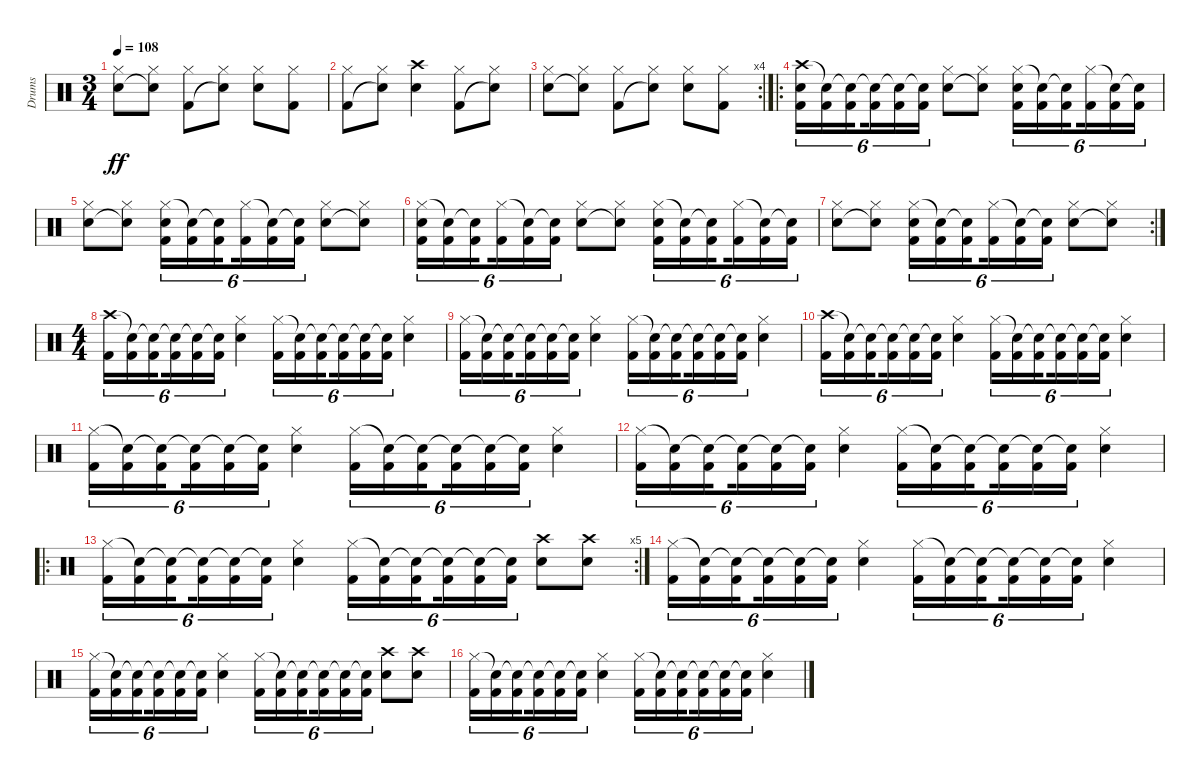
\track ("Drums" "Drums") {instrument percussion}
\staff {score}
\articulation defaults
\ts (3 4)
\tempo 108
\clef neutral
\ks c
("Hi-Hat (closed)" "Snare (hit) 2").8{dy ff} ("Hi-Hat (closed)" "Snare (hit)"{t}).8 ("Hi-Hat (closed)" "Kick (hit) 2").8 ("Hi-Hat (closed)" "Snare (hit)"{t}).8 ("Hi-Hat (closed)" "Snare (hit) 2").8 ("Hi-Hat (closed)" "Kick (hit) 2").8 |
("Hi-Hat (closed)" "Kick (hit) 2").8 ("Hi-Hat (closed)" "Snare (hit)"{t}).8 ("Crash high (hit)" "Snare (hit) 2").4 ("Hi-Hat (closed)" "Kick (hit) 2").8 ("Hi-Hat (closed)" "Snare (hit)"{t}).8 |
\rc 4
("Hi-Hat (closed)" "Snare (hit) 2").8 ("Hi-Hat (closed)" "Snare (hit)"{t}).8 ("Hi-Hat (closed)" "Kick (hit) 2").8 ("Hi-Hat (closed)" "Snare (hit)"{t}).8 ("Hi-Hat (closed)" "Snare (hit) 2").8 ("Hi-Hat (closed)" "Kick (hit) 2").8 |
\ro
("Crash high (hit)" "Snare (hit) 2" "Kick (hit) 2").16{tu (6 4)} ("Snare (hit)"{t} "Kick (hit) 2").16{tu (6 4)} ("Snare (hit)"{t} "Kick (hit) 2").16{tu (6 4) beam splitsecondary} ("Snare (hit)"{t} "Kick (hit) 2").16{tu (6 4)} ("Snare (hit)"{t} "Kick (hit) 2").16{tu (6 4)} ("Snare (hit)"{t} "Kick (hit) 2").16{tu (6 4)} ("Hi-Hat (closed)" "Snare (hit) 2").8 ("Hi-Hat (closed)" "Snare (hit)"{t}).8 ("Hi-Hat (closed)" "Snare (hit) 2" "Kick (hit) 2").16{tu (6 4)} ("Snare (hit)"{t} "Kick (hit) 2").16{tu (6 4)} ("Snare (hit)"{t} "Kick (hit) 2").16{tu (6 4) beam splitsecondary} ("Hi-Hat (closed)" "Kick (hit) 2").16{tu (6 4)} ("Snare (hit)"{t} "Kick (hit) 2").16{tu (6 4)} ("Snare (hit)"{t} "Kick (hit) 2").16{tu (6 4)} |
("Hi-Hat (closed)" "Snare (hit) 2").8 ("Hi-Hat (closed)" "Snare (hit)"{t}).8 ("Hi-Hat (closed)" "Snare (hit) 2" "Kick (hit) 2").16{tu (6 4)} ("Snare (hit)"{t} "Kick (hit) 2").16{tu (6 4)} ("Snare (hit)"{t} "Kick (hit) 2").16{tu (6 4) beam splitsecondary} ("Hi-Hat (closed)" "Kick (hit) 2").16{tu (6 4)} ("Snare (hit)"{t} "Kick (hit) 2").16{tu (6 4)} ("Snare (hit)"{t} "Kick (hit) 2").16{tu (6 4)} ("Hi-Hat (closed)" "Snare (hit) 2").8 ("Hi-Hat (closed)" "Snare (hit)"{t}).8 |
("Hi-Hat (closed)" "Snare (hit) 2" "Kick (hit) 2").16{tu (6 4)} ("Snare (hit)"{t} "Kick (hit) 2").16{tu (6 4)} ("Snare (hit)"{t} "Kick (hit) 2").16{tu (6 4) beam splitsecondary} ("Hi-Hat (closed)" "Kick (hit) 2").16{tu (6 4)} ("Snare (hit)"{t} "Kick (hit) 2").16{tu (6 4)} ("Snare (hit)"{t} "Kick (hit) 2").16{tu (6 4)} ("Hi-Hat (closed)" "Snare (hit) 2").8 ("Hi-Hat (closed)" "Snare (hit)"{t}).8 ("Hi-Hat (closed)" "Snare (hit) 2" "Kick (hit) 2").16{tu (6 4)} ("Snare (hit)"{t} "Kick (hit) 2").16{tu (6 4)} ("Snare (hit)"{t} "Kick (hit) 2").16{tu (6 4) beam splitsecondary} ("Hi-Hat (closed)" "Kick (hit) 2").16{tu (6 4)} ("Snare (hit)"{t} "Kick (hit) 2").16{tu (6 4)} ("Snare (hit)"{t} "Kick (hit) 2").16{tu (6 4)} |
\rc 2
("Hi-Hat (closed)" "Snare (hit) 2").8 ("Hi-Hat (closed)" "Snare (hit)"{t}).8 ("Hi-Hat (closed)" "Snare (hit) 2" "Kick (hit) 2").16{tu (6 4)} ("Snare (hit)"{t} "Kick (hit) 2").16{tu (6 4)} ("Snare (hit)"{t} "Kick (hit) 2").16{tu (6 4) beam splitsecondary} ("Hi-Hat (closed)" "Kick (hit) 2").16{tu (6 4)} ("Snare (hit)"{t} "Kick (hit) 2").16{tu (6 4)} ("Snare (hit)"{t} "Kick (hit) 2").16{tu (6 4)} ("Hi-Hat (closed)" "Snare (hit) 2").8 ("Hi-Hat (closed)" "Snare (hit)"{t}).8 |
\ts (4 4)
("Crash high (hit)" "Kick (hit) 2").16{tu (6 4)} ("Snare (hit)"{t} "Kick (hit) 2").16{tu (6 4)} ("Snare (hit)"{t} "Kick (hit) 2").16{tu (6 4) beam splitsecondary} ("Snare (hit)"{t} "Kick (hit) 2").16{tu (6 4)} ("Snare (hit)"{t} "Kick (hit) 2").16{tu (6 4)} ("Snare (hit)"{t} "Kick (hit) 2").16{tu (6 4)} ("Hi-Hat (closed)" "Snare (hit) 2").4 ("Hi-Hat (closed)" "Kick (hit) 2").16{tu (6 4)} ("Snare (hit)"{t} "Kick (hit) 2").16{tu (6 4)} ("Snare (hit)"{t} "Kick (hit) 2").16{tu (6 4) beam splitsecondary} ("Snare (hit)"{t} "Kick (hit) 2").16{tu (6 4)} ("Snare (hit)"{t} "Kick (hit) 2").16{tu (6 4)} ("Snare (hit)"{t} "Kick (hit) 2").16{tu (6 4)} ("Hi-Hat (closed)" "Snare (hit) 2").4 |
("Hi-Hat (closed)" "Kick (hit) 2").16{tu (6 4)} ("Snare (hit)"{t} "Kick (hit) 2").16{tu (6 4)} ("Snare (hit)"{t} "Kick (hit) 2").16{tu (6 4) beam splitsecondary} ("Snare (hit)"{t} "Kick (hit) 2").16{tu (6 4)} ("Snare (hit)"{t} "Kick (hit) 2").16{tu (6 4)} ("Snare (hit)"{t} "Kick (hit) 2").16{tu (6 4)} ("Hi-Hat (closed)" "Snare (hit) 2").4 ("Hi-Hat (closed)" "Kick (hit) 2").16{tu (6 4)} ("Snare (hit)"{t} "Kick (hit) 2").16{tu (6 4)} ("Snare (hit)"{t} "Kick (hit) 2").16{tu (6 4) beam splitsecondary} ("Snare (hit)"{t} "Kick (hit) 2").16{tu (6 4)} ("Snare (hit)"{t} "Kick (hit) 2").16{tu (6 4)} ("Snare (hit)"{t} "Kick (hit) 2").16{tu (6 4)} ("Hi-Hat (closed)" "Snare (hit) 2").4 |
("Crash high (hit)" "Kick (hit) 2").16{tu (6 4)} ("Snare (hit)"{t} "Kick (hit) 2").16{tu (6 4)} ("Snare (hit)"{t} "Kick (hit) 2").16{tu (6 4) beam splitsecondary} ("Snare (hit)"{t} "Kick (hit) 2").16{tu (6 4)} ("Snare (hit)"{t} "Kick (hit) 2").16{tu (6 4)} ("Snare (hit)"{t} "Kick (hit) 2").16{tu (6 4)} ("Hi-Hat (closed)" "Snare (hit) 2").4 ("Hi-Hat (closed)" "Kick (hit) 2").16{tu (6 4)} ("Snare (hit)"{t} "Kick (hit) 2").16{tu (6 4)} ("Snare (hit)"{t} "Kick (hit) 2").16{tu (6 4) beam splitsecondary} ("Snare (hit)"{t} "Kick (hit) 2").16{tu (6 4)} ("Snare (hit)"{t} "Kick (hit) 2").16{tu (6 4)} ("Snare (hit)"{t} "Kick (hit) 2").16{tu (6 4)} ("Hi-Hat (closed)" "Snare (hit) 2").4 |
("Hi-Hat (closed)" "Kick (hit) 2").16{tu (6 4)} ("Snare (hit)"{t} "Kick (hit) 2").16{tu (6 4)} ("Snare (hit)"{t} "Kick (hit) 2").16{tu (6 4) beam splitsecondary} ("Snare (hit)"{t} "Kick (hit) 2").16{tu (6 4)} ("Snare (hit)"{t} "Kick (hit) 2").16{tu (6 4)} ("Snare (hit)"{t} "Kick (hit) 2").16{tu (6 4)} ("Hi-Hat (closed)" "Snare (hit) 2").4 ("Hi-Hat (closed)" "Kick (hit) 2").16{tu (6 4)} ("Snare (hit)"{t} "Kick (hit) 2").16{tu (6 4)} ("Snare (hit)"{t} "Kick (hit) 2").16{tu (6 4) beam splitsecondary} ("Snare (hit)"{t} "Kick (hit) 2").16{tu (6 4)} ("Snare (hit)"{t} "Kick (hit) 2").16{tu (6 4)} ("Snare (hit)"{t} "Kick (hit) 2").16{tu (6 4)} ("Hi-Hat (closed)" "Snare (hit) 2").4 |
("Hi-Hat (closed)" "Kick (hit) 2").16{tu (6 4)} ("Snare (hit)"{t} "Kick (hit) 2").16{tu (6 4)} ("Snare (hit)"{t} "Kick (hit) 2").16{tu (6 4) beam splitsecondary} ("Snare (hit)"{t} "Kick (hit) 2").16{tu (6 4)} ("Snare (hit)"{t} "Kick (hit) 2").16{tu (6 4)} ("Snare (hit)"{t} "Kick (hit) 2").16{tu (6 4)} ("Hi-Hat (closed)" "Snare (hit) 2").4 ("Hi-Hat (closed)" "Kick (hit) 2").16{tu (6 4)} ("Snare (hit)"{t} "Kick (hit) 2").16{tu (6 4)} ("Snare (hit)"{t} "Kick (hit) 2").16{tu (6 4) beam splitsecondary} ("Snare (hit)"{t} "Kick (hit) 2").16{tu (6 4)} ("Snare (hit)"{t} "Kick (hit) 2").16{tu (6 4)} ("Snare (hit)"{t} "Kick (hit) 2").16{tu (6 4)} ("Hi-Hat (closed)" "Snare (hit) 2").4 |
\ro
\rc 5
("Hi-Hat (closed)" "Kick (hit) 2").16{tu (6 4)} ("Snare (hit)"{t} "Kick (hit) 2").16{tu (6 4)} ("Snare (hit)"{t} "Kick (hit) 2").16{tu (6 4) beam splitsecondary} ("Snare (hit)"{t} "Kick (hit) 2").16{tu (6 4)} ("Snare (hit)"{t} "Kick (hit) 2").16{tu (6 4)} ("Snare (hit)"{t} "Kick (hit) 2").16{tu (6 4)} ("Hi-Hat (closed)" "Snare (hit) 2").4 ("Hi-Hat (closed)" "Kick (hit) 2").16{tu (6 4)} ("Snare (hit)"{t} "Kick (hit) 2").16{tu (6 4)} ("Snare (hit)"{t} "Kick (hit) 2").16{tu (6 4) beam splitsecondary} ("Snare (hit)"{t} "Kick (hit) 2").16{tu (6 4)} ("Snare (hit)"{t} "Kick (hit) 2").16{tu (6 4)} ("Snare (hit)"{t} "Kick (hit) 2").16{tu (6 4)} ("Crash high (hit)" "Snare (hit) 2").8 ("Crash high (hit)" "Snare (hit) 2").8 |
("Hi-Hat (closed)" "Kick (hit) 2").16{tu (6 4)} ("Snare (hit)"{t} "Kick (hit) 2").16{tu (6 4)} ("Snare (hit)"{t} "Kick (hit) 2").16{tu (6 4) beam splitsecondary} ("Snare (hit)"{t} "Kick (hit) 2").16{tu (6 4)} ("Snare (hit)"{t} "Kick (hit) 2").16{tu (6 4)} ("Snare (hit)"{t} "Kick (hit) 2").16{tu (6 4)} ("Hi-Hat (closed)" "Snare (hit) 2").4 ("Hi-Hat (closed)" "Kick (hit) 2").16{tu (6 4)} ("Snare (hit)"{t} "Kick (hit) 2").16{tu (6 4)} ("Snare (hit)"{t} "Kick (hit) 2").16{tu (6 4) beam splitsecondary} ("Snare (hit)"{t} "Kick (hit) 2").16{tu (6 4)} ("Snare (hit)"{t} "Kick (hit) 2").16{tu (6 4)} ("Snare (hit)"{t} "Kick (hit) 2").16{tu (6 4)} ("Hi-Hat (closed)" "Snare (hit) 2").4 |
("Hi-Hat (closed)" "Kick (hit) 2").16{tu (6 4)} ("Snare (hit)"{t} "Kick (hit) 2").16{tu (6 4)} ("Snare (hit)"{t} "Kick (hit) 2").16{tu (6 4) beam splitsecondary} ("Snare (hit)"{t} "Kick (hit) 2").16{tu (6 4)} ("Snare (hit)"{t} "Kick (hit) 2").16{tu (6 4)} ("Snare (hit)"{t} "Kick (hit) 2").16{tu (6 4)} ("Hi-Hat (closed)" "Snare (hit) 2").4 ("Hi-Hat (closed)" "Kick (hit) 2").16{tu (6 4)} ("Snare (hit)"{t} "Kick (hit) 2").16{tu (6 4)} ("Snare (hit)"{t} "Kick (hit) 2").16{tu (6 4) beam splitsecondary} ("Snare (hit)"{t} "Kick (hit) 2").16{tu (6 4)} ("Snare (hit)"{t} "Kick (hit) 2").16{tu (6 4)} ("Snare (hit)"{t} "Kick (hit) 2").16{tu (6 4)} ("Crash high (hit)" "Snare (hit) 2").8 ("Crash high (hit)" "Snare (hit) 2").8 |
("Hi-Hat (closed)" "Kick (hit) 2").16{tu (6 4)} ("Snare (hit)"{t} "Kick (hit) 2").16{tu (6 4)} ("Snare (hit)"{t} "Kick (hit) 2").16{tu (6 4) beam splitsecondary} ("Snare (hit)"{t} "Kick (hit) 2").16{tu (6 4)} ("Snare (hit)"{t} "Kick (hit) 2").16{tu (6 4)} ("Snare (hit)"{t} "Kick (hit) 2").16{tu (6 4)} ("Hi-Hat (closed)" "Snare (hit) 2").4 ("Hi-Hat (closed)" "Kick (hit) 2").16{tu (6 4)} ("Snare (hit)"{t} "Kick (hit) 2").16{tu (6 4)} ("Snare (hit)"{t} "Kick (hit) 2").16{tu (6 4) beam splitsecondary} ("Snare (hit)"{t} "Kick (hit) 2").16{tu (6 4)} ("Snare (hit)"{t} "Kick (hit) 2").16{tu (6 4)} ("Snare (hit)"{t} "Kick (hit) 2").16{tu (6 4)} ("Hi-Hat (closed)" "Snare (hit) 2").4
